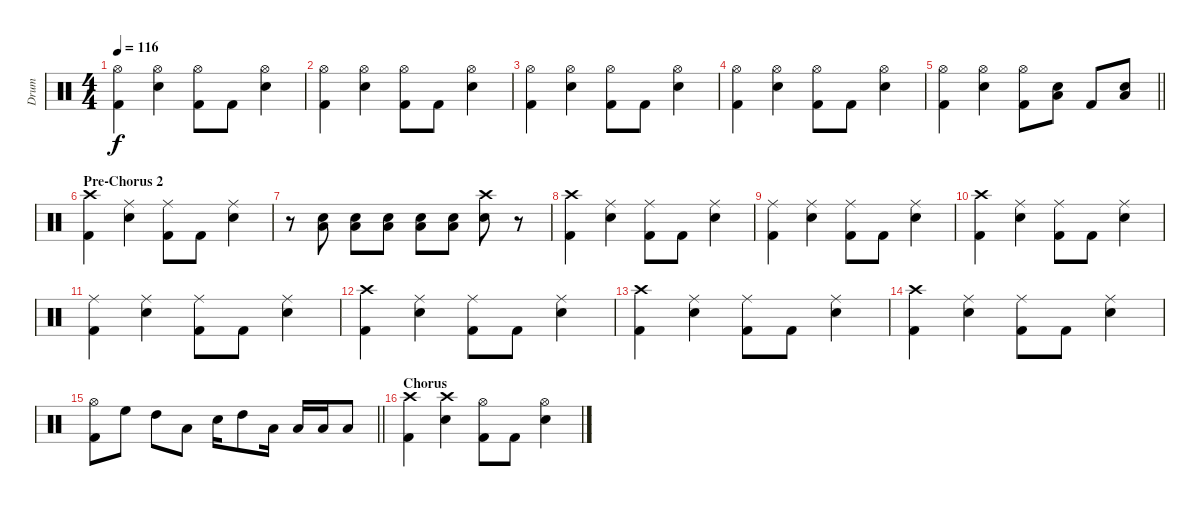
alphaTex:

\track ("Drum" "Drum") {instrument percussion}
\staff {score}
\articulation defaults
\ts (4 4)
\tempo 116
\clef neutral
\ks c
("Hi-Hat (open)" "Kick (hit) 2").4{dy f} ("Hi-Hat (open)" "Electric Snare (hit)").4 ("Hi-Hat (open)" "Kick (hit) 2").8 "Kick (hit) 2".8 ("Hi-Hat (open)" "Electric Snare (hit)").4 |
("Hi-Hat (open)" "Kick (hit) 2").4 ("Hi-Hat (open)" "Electric Snare (hit)").4 ("Hi-Hat (open)" "Kick (hit) 2").8 "Kick (hit) 2".8 ("Hi-Hat (open)" "Electric Snare (hit)").4 |
("Hi-Hat (open)" "Kick (hit) 2").4 ("Hi-Hat (open)" "Electric Snare (hit)").4 ("Hi-Hat (open)" "Kick (hit) 2").8 "Kick (hit) 2".8 ("Hi-Hat (open)" "Electric Snare (hit)").4 |
("Hi-Hat (open)" "Kick (hit) 2").4 ("Hi-Hat (open)" "Electric Snare (hit)").4 ("Hi-Hat (open)" "Kick (hit) 2").8 "Kick (hit) 2".8 ("Hi-Hat (open)" "Electric Snare (hit)").4 |
\barLineRight lightlight
("Hi-Hat (open)" "Kick (hit) 2").4 ("Hi-Hat (open)" "Electric Snare (hit)").4 ("Hi-Hat (open)" "Kick (hit) 2").8 ("Electric Snare (hit)" "Low Floor Tom (hit)").8 "Kick (hit) 2".8 ("Electric Snare (hit)" "Low Floor Tom (hit)").8 |
\section ("" "Pre-Chorus 2")
("Crash high (hit)" "Kick (hit) 2").4 ("Ride (middle)" "Electric Snare (hit)").4 ("Ride (middle)" "Kick (hit) 2").8 "Kick (hit) 2".8 ("Ride (middle)" "Electric Snare (hit)").4 |
r.8 ("Electric Snare (hit)" "Low Floor Tom (hit)").8 ("Electric Snare (hit)" "Low Floor Tom (hit)").8 ("Electric Snare (hit)" "Low Floor Tom (hit)").8 ("Electric Snare (hit)" "Low Floor Tom (hit)").8 ("Electric Snare (hit)" "Low Floor Tom (hit)").8 ("Crash high (hit)" "Electric Snare (hit)").8 r.8 |
("Crash high (hit)" "Kick (hit) 2").4 ("Ride (middle)" "Electric Snare (hit)").4 ("Ride (middle)" "Kick (hit) 2").8 "Kick (hit) 2".8 ("Ride (middle)" "Electric Snare (hit)").4 |
("Ride (middle)" "Kick (hit) 2").4 ("Ride (middle)" "Electric Snare (hit)").4 ("Ride (middle)" "Kick (hit) 2").8 "Kick (hit) 2".8 ("Ride (middle)" "Electric Snare (hit)").4 |
("Crash high (hit)" "Kick (hit) 2").4 ("Ride (middle)" "Electric Snare (hit)").4 ("Ride (middle)" "Kick (hit) 2").8 "Kick (hit) 2".8 ("Ride (middle)" "Electric Snare (hit)").4 |
("Ride (middle)" "Kick (hit) 2").4 ("Ride (middle)" "Electric Snare (hit)").4 ("Ride (middle)" "Kick (hit) 2").8 "Kick (hit) 2".8 ("Ride (middle)" "Electric Snare (hit)").4 |
("Crash high (hit)" "Kick (hit) 2").4 ("Ride (middle)" "Electric Snare (hit)").4 ("Ride (middle)" "Kick (hit) 2").8 "Kick (hit) 2".8 ("Ride (middle)" "Electric Snare (hit)").4 |
("Crash high (hit)" "Kick (hit) 2").4 ("Ride (middle)" "Electric Snare (hit)").4 ("Ride (middle)" "Kick (hit) 2").8 "Kick (hit) 2".8 ("Ride (middle)" "Electric Snare (hit)").4 |
("Crash high (hit)" "Kick (hit) 2").4 ("Ride (middle)" "Electric Snare (hit)").4 ("Ride (middle)" "Kick (hit) 2").8 "Kick (hit) 2".8 ("Ride (middle)" "Electric Snare (hit)").4 |
\barLineRight lightlight
("Hi-Hat (open)" "Kick (hit) 2").8 "High Floor Tom (hit)".8 "High Tom (hit)".8 "Low Tom (hit)".8 "Electric Snare (hit)".16 "High Tom (hit)".8 "Low Tom (hit)".16 "Low Tom (hit)".16 "Low Floor Tom (hit)".16 "Low Floor Tom (hit)".8 |
\section ("" "Chorus")
("Crash high (hit)" "Kick (hit) 2").4 ("Crash high (hit)" "Electric Snare (hit)").4 ("Hi-Hat (open)" "Kick (hit) 2").8 "Kick (hit) 2".8 ("Hi-Hat (open)" "Electric Snare (hit)").4
